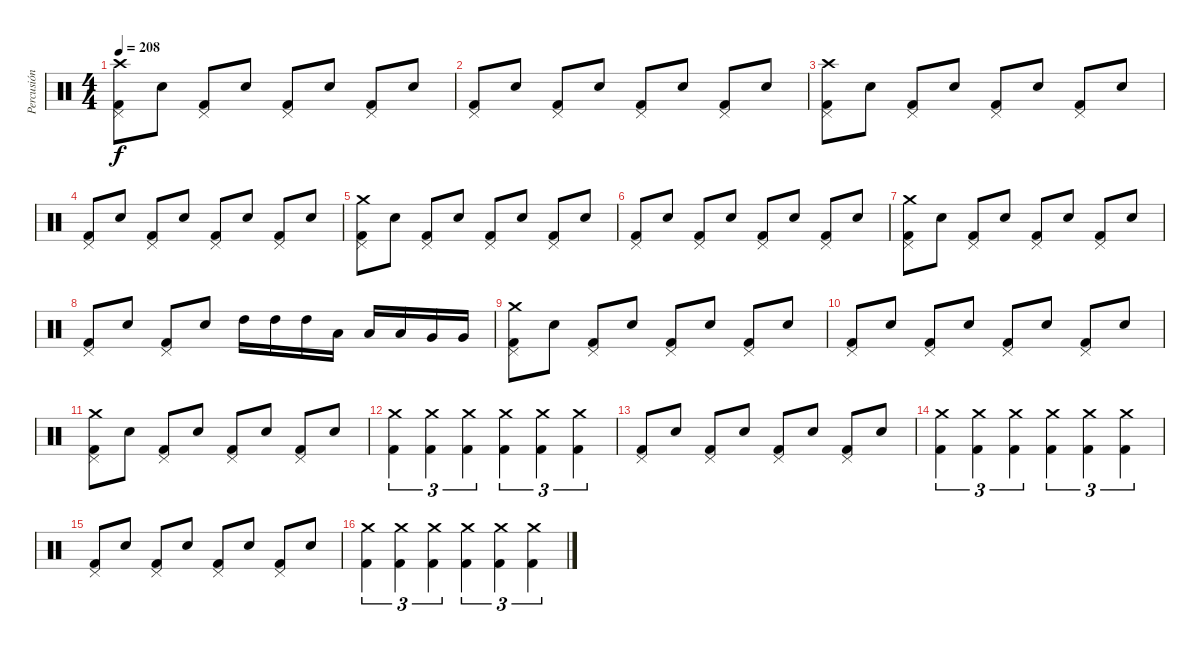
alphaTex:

\track ("Percusión" "Percusión") {instrument percussion}
\staff {score}
\articulation defaults
\ts (4 4)
\tempo 208
\clef neutral
\ks c
("Crash high (hit)" "Pedal Hi-Hat (hit)" "Kick (hit) 2").8{dy f} "Electric Snare (hit)".8 ("Pedal Hi-Hat (hit)" "Kick (hit) 2").8 "Electric Snare (hit)".8 ("Pedal Hi-Hat (hit)" "Kick (hit) 2").8 "Electric Snare (hit)".8 ("Pedal Hi-Hat (hit)" "Kick (hit) 2").8 "Electric Snare (hit)".8 |
("Pedal Hi-Hat (hit)" "Kick (hit) 2").8 "Electric Snare (hit)".8 ("Pedal Hi-Hat (hit)" "Kick (hit) 2").8 "Electric Snare (hit)".8 ("Pedal Hi-Hat (hit)" "Kick (hit) 2").8 "Electric Snare (hit)".8 ("Pedal Hi-Hat (hit)" "Kick (hit) 2").8 "Electric Snare (hit)".8 |
("Crash high (hit)" "Pedal Hi-Hat (hit)" "Kick (hit) 2").8 "Electric Snare (hit)".8 ("Pedal Hi-Hat (hit)" "Kick (hit) 2").8 "Electric Snare (hit)".8 ("Pedal Hi-Hat (hit)" "Kick (hit) 2").8 "Electric Snare (hit)".8 ("Pedal Hi-Hat (hit)" "Kick (hit) 2").8 "Electric Snare (hit)".8 |
("Pedal Hi-Hat (hit)" "Kick (hit) 2").8 "Electric Snare (hit)".8 ("Pedal Hi-Hat (hit)" "Kick (hit) 2").8 "Electric Snare (hit)".8 ("Pedal Hi-Hat (hit)" "Kick (hit) 2").8 "Electric Snare (hit)".8 ("Pedal Hi-Hat (hit)" "Kick (hit) 2").8 "Electric Snare (hit)".8 |
("Crash medium (hit)" "Pedal Hi-Hat (hit)" "Kick (hit) 2").8 "Electric Snare (hit)".8 ("Pedal Hi-Hat (hit)" "Kick (hit) 2").8 "Electric Snare (hit)".8 ("Pedal Hi-Hat (hit)" "Kick (hit) 2").8 "Electric Snare (hit)".8 ("Pedal Hi-Hat (hit)" "Kick (hit) 2").8 "Electric Snare (hit)".8 |
("Pedal Hi-Hat (hit)" "Kick (hit) 2").8 "Electric Snare (hit)".8 ("Pedal Hi-Hat (hit)" "Kick (hit) 2").8 "Electric Snare (hit)".8 ("Pedal Hi-Hat (hit)" "Kick (hit) 2").8 "Electric Snare (hit)".8 ("Pedal Hi-Hat (hit)" "Kick (hit) 2").8 "Electric Snare (hit)".8 |
("Crash medium (hit)" "Pedal Hi-Hat (hit)" "Kick (hit) 2").8 "Electric Snare (hit)".8 ("Pedal Hi-Hat (hit)" "Kick (hit) 2").8 "Electric Snare (hit)".8 ("Pedal Hi-Hat (hit)" "Kick (hit) 2").8 "Electric Snare (hit)".8 ("Pedal Hi-Hat (hit)" "Kick (hit) 2").8 "Electric Snare (hit)".8 |
("Pedal Hi-Hat (hit)" "Kick (hit) 2").8 "Electric Snare (hit)".8 ("Pedal Hi-Hat (hit)" "Kick (hit) 2").8 "Electric Snare (hit)".8 "High Tom (hit)".16 "High Tom (hit)".16 "High Tom (hit)".16 "Low Tom (hit)".16 "Low Tom (hit)".16 "Low Tom (hit)".16 "Very Low Tom (hit)".16 "Very Low Tom (hit)".16 |
("Crash medium (hit)" "Pedal Hi-Hat (hit)" "Kick (hit) 2").8 "Electric Snare (hit)".8 ("Pedal Hi-Hat (hit)" "Kick (hit) 2").8 "Electric Snare (hit)".8 ("Pedal Hi-Hat (hit)" "Kick (hit) 2").8 "Electric Snare (hit)".8 ("Pedal Hi-Hat (hit)" "Kick (hit) 2").8 "Electric Snare (hit)".8 |
("Pedal Hi-Hat (hit)" "Kick (hit) 2").8 "Electric Snare (hit)".8 ("Pedal Hi-Hat (hit)" "Kick (hit) 2").8 "Electric Snare (hit)".8 ("Pedal Hi-Hat (hit)" "Kick (hit) 2").8 "Electric Snare (hit)".8 ("Pedal Hi-Hat (hit)" "Kick (hit) 2").8 "Electric Snare (hit)".8 |
("Crash medium (hit)" "Pedal Hi-Hat (hit)" "Kick (hit) 2").8 "Electric Snare (hit)".8 ("Pedal Hi-Hat (hit)" "Kick (hit) 2").8 "Electric Snare (hit)".8 ("Pedal Hi-Hat (hit)" "Kick (hit) 2").8 "Electric Snare (hit)".8 ("Pedal Hi-Hat (hit)" "Kick (hit) 2").8 "Electric Snare (hit)".8 |
("Crash medium (hit)" "Kick (hit) 2").4{tu (3 2)} ("Crash medium (hit)" "Kick (hit) 2").4{tu (3 2)} ("Crash medium (hit)" "Kick (hit) 2").4{tu (3 2)} ("Crash medium (hit)" "Kick (hit) 2").4{tu (3 2)} ("Crash medium (hit)" "Kick (hit) 2").4{tu (3 2)} ("Crash medium (hit)" "Kick (hit) 2").4{tu (3 2)} |
("Pedal Hi-Hat (hit)" "Kick (hit) 2").8 "Electric Snare (hit)".8 ("Pedal Hi-Hat (hit)" "Kick (hit) 2").8 "Electric Snare (hit)".8 ("Pedal Hi-Hat (hit)" "Kick (hit) 2").8 "Electric Snare (hit)".8 ("Pedal Hi-Hat (hit)" "Kick (hit) 2").8 "Electric Snare (hit)".8 |
("Crash medium (hit)" "Kick (hit) 2").4{tu (3 2)} ("Crash medium (hit)" "Kick (hit) 2").4{tu (3 2)} ("Crash medium (hit)" "Kick (hit) 2").4{tu (3 2)} ("Crash medium (hit)" "Kick (hit) 2").4{tu (3 2)} ("Crash medium (hit)" "Kick (hit) 2").4{tu (3 2)} ("Crash medium (hit)" "Kick (hit) 2").4{tu (3 2)} |
("Pedal Hi-Hat (hit)" "Kick (hit) 2").8 "Electric Snare (hit)".8 ("Pedal Hi-Hat (hit)" "Kick (hit) 2").8 "Electric Snare (hit)".8 ("Pedal Hi-Hat (hit)" "Kick (hit) 2").8 "Electric Snare (hit)".8 ("Pedal Hi-Hat (hit)" "Kick (hit) 2").8 "Electric Snare (hit)".8 |
("Crash medium (hit)" "Kick (hit) 2").4{tu (3 2)} ("Crash medium (hit)" "Kick (hit) 2").4{tu (3 2)} ("Crash medium (hit)" "Kick (hit) 2").4{tu (3 2)} ("Crash medium (hit)" "Kick (hit) 2").4{tu (3 2)} ("Crash medium (hit)" "Kick (hit) 2").4{tu (3 2)} ("Crash medium (hit)" "Kick (hit) 2").4{tu (3 2)}
